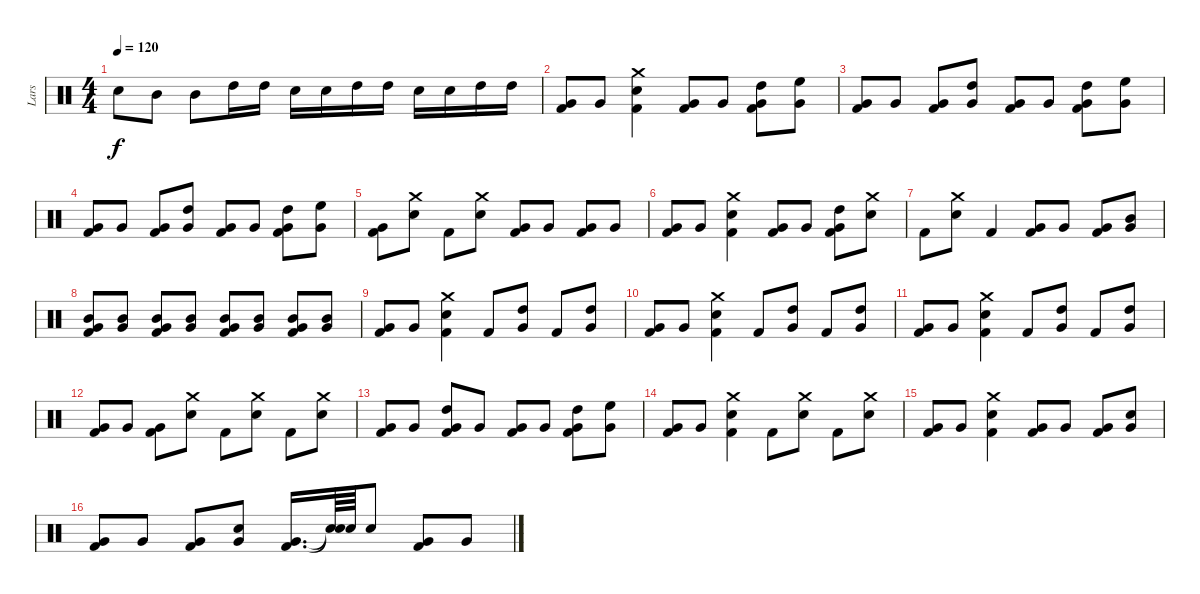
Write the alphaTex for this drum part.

\track ("Lars" "Lars") {instrument percussion}
\staff {score}
\articulation defaults
\ts (4 4)
\tempo 120
\clef neutral
\ks c "Snare (hit) 2".8{dy f} "Mid Tom (hit)".8 "Mid Tom (hit)".8 "High Tom (hit)".16 "High Tom (hit)".16 "Snare (hit) 2".16 "Snare (hit) 2".16 "High Tom (hit)".16 "High Tom (hit)".16 "Snare (hit) 2".16 "Snare (hit) 2".16 "High Tom (hit)".16 "High Tom (hit)".16
|
("Very Low Tom (hit)" "Kick (hit) 2").8 "Very Low Tom (hit)".8 ("Crash medium (hit)" "Snare (hit) 2" "Kick (hit) 2").4 ("Very Low Tom (hit)" "Kick (hit) 2").8 "Very Low Tom (hit)".8 ("High Tom (hit)" "Very Low Tom (hit)" "Kick (hit) 2").8 ("High Floor Tom (hit)" "Very Low Tom (hit)").8 |
("Very Low Tom (hit)" "Kick (hit) 2").8 "Very Low Tom (hit)".8 ("Very Low Tom (hit)" "Kick (hit) 2").8 ("High Tom (hit)" "Very Low Tom (hit)").8 ("Very Low Tom (hit)" "Kick (hit) 2").8 "Very Low Tom (hit)".8 ("High Tom (hit)" "Very Low Tom (hit)" "Kick (hit) 2").8 ("High Floor Tom (hit)" "Very Low Tom (hit)").8 |
("Very Low Tom (hit)" "Kick (hit) 2").8 "Very Low Tom (hit)".8 ("Very Low Tom (hit)" "Kick (hit) 2").8 ("High Tom (hit)" "Very Low Tom (hit)").8 ("Very Low Tom (hit)" "Kick (hit) 2").8 "Very Low Tom (hit)".8 ("High Tom (hit)" "Very Low Tom (hit)" "Kick (hit) 2").8 ("High Floor Tom (hit)" "Very Low Tom (hit)").8 |
("Very Low Tom (hit)" "Kick (hit) 2").8 ("Crash medium (hit)" "Snare (hit) 2").8 "Kick (hit) 2".8 ("Snare (hit) 2" "Crash medium (hit)").8 ("Very Low Tom (hit)" "Kick (hit) 2").8 "Very Low Tom (hit)".8 ("Very Low Tom (hit)" "Kick (hit) 2").8 "Very Low Tom (hit)".8 |
("Very Low Tom (hit)" "Kick (hit) 2").8 "Very Low Tom (hit)".8 ("Snare (hit) 2" "Crash medium (hit)" "Kick (hit) 2").4 ("Very Low Tom (hit)" "Kick (hit) 2").8 "Very Low Tom (hit)".8 ("High Tom (hit)" "Very Low Tom (hit)" "Kick (hit) 2").8 ("Crash medium (hit)" "Snare (hit) 2").8 |
"Kick (hit) 2".8 ("Snare (hit) 2" "Crash medium (hit)").8 "Kick (hit) 2".4 ("Very Low Tom (hit)" "Kick (hit) 2").8 "Very Low Tom (hit)".8 ("Very Low Tom (hit)" "Kick (hit) 2").8 ("Mid Tom (hit)" "Very Low Tom (hit)").8 |
("Mid Tom (hit)" "Very Low Tom (hit)" "Kick (hit) 2").8 ("Mid Tom (hit)" "Very Low Tom (hit)").8 ("Mid Tom (hit)" "Very Low Tom (hit)" "Kick (hit) 2").8 ("Mid Tom (hit)" "Very Low Tom (hit)").8 ("Mid Tom (hit)" "Very Low Tom (hit)" "Kick (hit) 2").8 ("Mid Tom (hit)" "Very Low Tom (hit)").8 ("Mid Tom (hit)" "Very Low Tom (hit)" "Kick (hit) 2").8 ("Mid Tom (hit)" "Very Low Tom (hit)").8 |
("Very Low Tom (hit)" "Kick (hit) 2").8 "Very Low Tom (hit)".8 ("Crash medium (hit)" "Snare (hit) 2" "Kick (hit) 2").4 "Kick (hit) 2".8 ("High Tom (hit)" "Very Low Tom (hit)").8 "Kick (hit) 2".8 ("High Tom (hit)" "Very Low Tom (hit)").8 |
("Very Low Tom (hit)" "Kick (hit) 2").8 "Very Low Tom (hit)".8 ("Crash medium (hit)" "Snare (hit) 2" "Kick (hit) 2").4 "Kick (hit) 2".8 ("High Tom (hit)" "Very Low Tom (hit)").8 "Kick (hit) 2".8 ("High Tom (hit)" "Very Low Tom (hit)").8 |
("Very Low Tom (hit)" "Kick (hit) 2").8 "Very Low Tom (hit)".8 ("Crash medium (hit)" "Snare (hit) 2" "Kick (hit) 2").4 "Kick (hit) 2".8 ("High Tom (hit)" "Very Low Tom (hit)").8 "Kick (hit) 2".8 ("High Tom (hit)" "Very Low Tom (hit)").8 |
("Very Low Tom (hit)" "Kick (hit) 2").8 "Very Low Tom (hit)".8 ("Very Low Tom (hit)" "Kick (hit) 2").8 ("Crash medium (hit)" "Snare (hit) 2").8 "Kick (hit) 2".8 ("Snare (hit) 2" "Crash medium (hit)").8 "Kick (hit) 2".8 ("Snare (hit) 2" "Crash medium (hit)").8 |
("Very Low Tom (hit)" "Kick (hit) 2").8 "Very Low Tom (hit)".8 ("High Tom (hit)" "Very Low Tom (hit)" "Kick (hit) 2").8 "Very Low Tom (hit)".8 ("Very Low Tom (hit)" "Kick (hit) 2").8 "Very Low Tom (hit)".8 ("High Tom (hit)" "Very Low Tom (hit)" "Kick (hit) 2").8 ("High Floor Tom (hit)" "Very Low Tom (hit)").8 |
("Very Low Tom (hit)" "Kick (hit) 2").8 "Very Low Tom (hit)".8 ("Snare (hit) 2" "Crash medium (hit)" "Kick (hit) 2").4 "Kick (hit) 2".8 ("Snare (hit) 2" "Crash medium (hit)").8 "Kick (hit) 2".8 ("Snare (hit) 2" "Crash medium (hit)").8 |
("Very Low Tom (hit)" "Kick (hit) 2").8 "Very Low Tom (hit)".8 ("Crash medium (hit)" "Snare (hit) 2" "Kick (hit) 2").4 ("Very Low Tom (hit)" "Kick (hit) 2").8 "Very Low Tom (hit)".8 ("Very Low Tom (hit)" "Kick (hit) 2").8 ("Snare (hit) 2" "Very Low Tom (hit)").8 |
("Very Low Tom (hit)" "Kick (hit) 2").8 "Very Low Tom (hit)".8 ("Very Low Tom (hit)" "Kick (hit) 2").8 ("Snare (hit) 2" "Very Low Tom (hit)").8 ("Very Low Tom (hit)" "Kick (hit) 2").16{d} ("Snare (hit)"{t} "Snare (hit)"{t}).64 "Snare (hit) 2".64 "Snare (hit) 2".8 ("Very Low Tom (hit)" "Kick (hit) 2").8 "Very Low Tom (hit)".8
